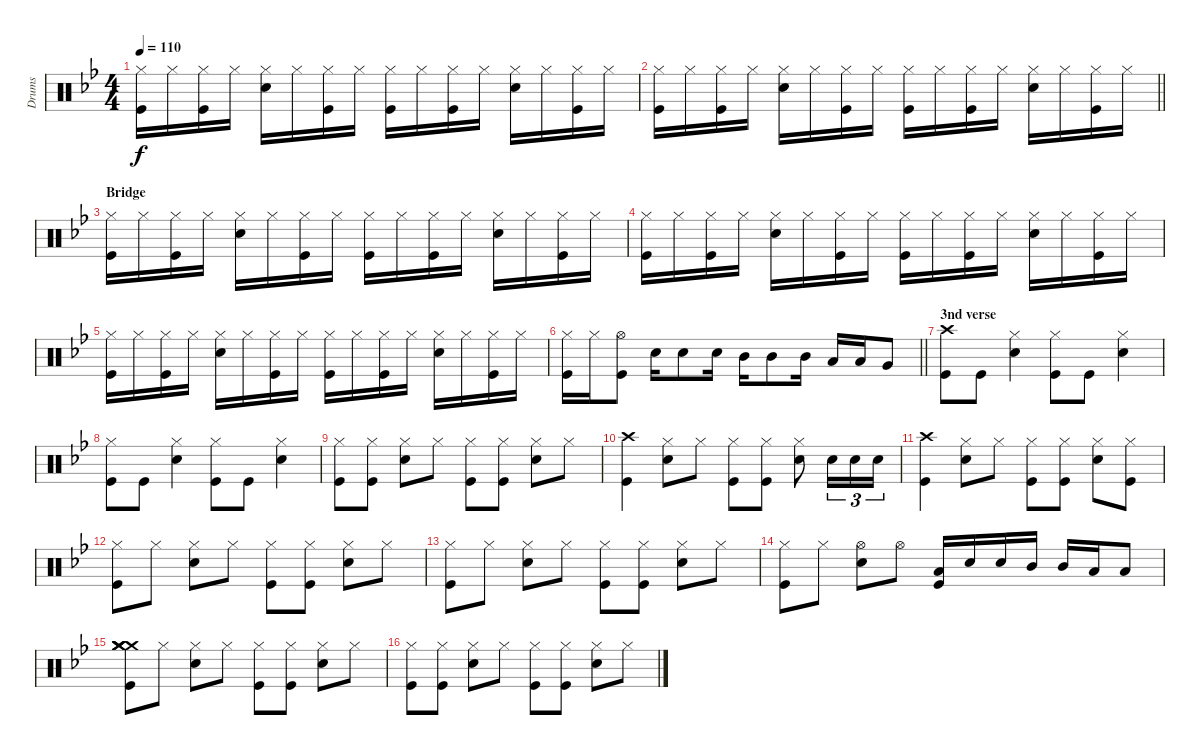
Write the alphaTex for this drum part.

\track ("Drums" "Drums") {instrument percussion}
\staff {score}
\articulation defaults
\ts (4 4)
\tempo 110
\clef neutral
\ks bb
("Hi-Hat (closed)" "Kick (hit)").16{dy f} "Hi-Hat (closed)".16 ("Hi-Hat (closed)" "Kick (hit)").16 "Hi-Hat (closed)".16 ("Hi-Hat (closed)" "Snare (hit) 2").16 "Hi-Hat (closed)".16 ("Hi-Hat (closed)" "Kick (hit)").16 "Hi-Hat (closed)".16 ("Hi-Hat (closed)" "Kick (hit)").16 "Hi-Hat (closed)".16 ("Hi-Hat (closed)" "Kick (hit)").16 "Hi-Hat (closed)".16 ("Hi-Hat (closed)" "Snare (hit) 2").16 "Hi-Hat (closed)".16 ("Hi-Hat (closed)" "Kick (hit)").16 "Hi-Hat (closed)".16 |
\barLineRight lightlight
("Hi-Hat (closed)" "Kick (hit)").16 "Hi-Hat (closed)".16 ("Hi-Hat (closed)" "Kick (hit)").16 "Hi-Hat (closed)".16 ("Hi-Hat (closed)" "Snare (hit) 2").16 "Hi-Hat (closed)".16 ("Hi-Hat (closed)" "Kick (hit)").16 "Hi-Hat (closed)".16 ("Hi-Hat (closed)" "Kick (hit)").16 "Hi-Hat (closed)".16 ("Hi-Hat (closed)" "Kick (hit)").16 "Hi-Hat (closed)".16 ("Hi-Hat (closed)" "Snare (hit) 2").16 "Hi-Hat (closed)".16 ("Hi-Hat (closed)" "Kick (hit)").16 "Hi-Hat (closed)".16 |
\section ("" "Bridge")
("Hi-Hat (closed)" "Kick (hit)").16 "Hi-Hat (closed)".16 ("Hi-Hat (closed)" "Kick (hit)").16 "Hi-Hat (closed)".16 ("Hi-Hat (closed)" "Snare (hit) 2").16 "Hi-Hat (closed)".16 ("Hi-Hat (closed)" "Kick (hit)").16 "Hi-Hat (closed)".16 ("Hi-Hat (closed)" "Kick (hit)").16 "Hi-Hat (closed)".16 ("Hi-Hat (closed)" "Kick (hit)").16 "Hi-Hat (closed)".16 ("Hi-Hat (closed)" "Snare (hit) 2").16 "Hi-Hat (closed)".16 ("Hi-Hat (closed)" "Kick (hit)").16 "Hi-Hat (closed)".16 |
("Hi-Hat (closed)" "Kick (hit)").16 "Hi-Hat (closed)".16 ("Hi-Hat (closed)" "Kick (hit)").16 "Hi-Hat (closed)".16 ("Hi-Hat (closed)" "Snare (hit) 2").16 "Hi-Hat (closed)".16 ("Hi-Hat (closed)" "Kick (hit)").16 "Hi-Hat (closed)".16 ("Hi-Hat (closed)" "Kick (hit)").16 "Hi-Hat (closed)".16 ("Hi-Hat (closed)" "Kick (hit)").16 "Hi-Hat (closed)".16 ("Hi-Hat (closed)" "Snare (hit) 2").16 "Hi-Hat (closed)".16 ("Hi-Hat (closed)" "Kick (hit)").16 "Hi-Hat (closed)".16 |
("Hi-Hat (closed)" "Kick (hit)").16 "Hi-Hat (closed)".16 ("Hi-Hat (closed)" "Kick (hit)").16 "Hi-Hat (closed)".16 ("Hi-Hat (closed)" "Snare (hit) 2").16 "Hi-Hat (closed)".16 ("Hi-Hat (closed)" "Kick (hit)").16 "Hi-Hat (closed)".16 ("Hi-Hat (closed)" "Kick (hit)").16 "Hi-Hat (closed)".16 ("Hi-Hat (closed)" "Kick (hit)").16 "Hi-Hat (closed)".16 ("Hi-Hat (closed)" "Snare (hit) 2").16 "Hi-Hat (closed)".16 ("Hi-Hat (closed)" "Kick (hit)").16 "Hi-Hat (closed)".16 |
\barLineRight lightlight
("Hi-Hat (closed)" "Kick (hit)").16 "Hi-Hat (closed)".16 ("Hi-Hat (open)" "Kick (hit)").8 "Snare (hit) 2".16 "Snare (hit) 2".8 "Snare (hit) 2".16 "Mid Tom (hit)".16 "Mid Tom (hit)".8 "Mid Tom (hit)".16 "Low Tom (hit)".16 "Low Tom (hit)".16 "Very Low Tom (hit)".8 |
\section ("" "3nd verse")
("Crash high (hit)" "Kick (hit)").8 "Kick (hit)".8 ("Hi-Hat (closed)" "Snare (hit) 2").4 ("Hi-Hat (closed)" "Kick (hit)").8 "Kick (hit)".8 ("Hi-Hat (closed)" "Snare (hit) 2").4 |
("Hi-Hat (closed)" "Kick (hit)").8 "Kick (hit)".8 ("Hi-Hat (closed)" "Snare (hit) 2").4 ("Hi-Hat (closed)" "Kick (hit)").8 "Kick (hit)".8 ("Hi-Hat (closed)" "Snare (hit) 2").4 |
("Hi-Hat (closed)" "Kick (hit)").8 ("Hi-Hat (closed)" "Kick (hit)").8 ("Hi-Hat (closed)" "Snare (hit) 2").8 "Hi-Hat (closed)".8 ("Hi-Hat (closed)" "Kick (hit)").8 ("Hi-Hat (closed)" "Kick (hit)").8 ("Hi-Hat (closed)" "Snare (hit) 2").8 "Hi-Hat (closed)".8 |
("Crash high (hit)" "Kick (hit)").4 ("Hi-Hat (closed)" "Snare (hit) 2").8 "Hi-Hat (closed)".8 ("Hi-Hat (closed)" "Kick (hit)").8 ("Hi-Hat (closed)" "Kick (hit)").8 ("Hi-Hat (closed)" "Snare (hit) 2").8 "Snare (hit) 2".16{tu (3 2)} "Snare (hit) 2".16{tu (3 2)} "Snare (hit) 2".16{tu (3 2)} |
("Crash high (hit)" "Kick (hit)").4 ("Hi-Hat (closed)" "Snare (hit) 2").8 "Hi-Hat (closed)".8 ("Hi-Hat (closed)" "Kick (hit)").8 ("Hi-Hat (closed)" "Kick (hit)").8 ("Hi-Hat (closed)" "Snare (hit) 2").8 ("Hi-Hat (closed)" "Kick (hit)").8 |
("Hi-Hat (closed)" "Kick (hit)").8 "Hi-Hat (closed)".8 ("Hi-Hat (closed)" "Snare (hit) 2").8 "Hi-Hat (closed)".8 ("Hi-Hat (closed)" "Kick (hit)").8 ("Hi-Hat (closed)" "Kick (hit)").8 ("Hi-Hat (closed)" "Snare (hit) 2").8 "Hi-Hat (closed)".8 |
("Hi-Hat (closed)" "Kick (hit)").8 "Hi-Hat (closed)".8 ("Hi-Hat (closed)" "Snare (hit) 2").8 "Hi-Hat (closed)".8 ("Hi-Hat (closed)" "Kick (hit)").8 ("Hi-Hat (closed)" "Kick (hit)").8 ("Hi-Hat (closed)" "Snare (hit) 2").8 "Hi-Hat (closed)".8 |
("Hi-Hat (closed)" "Kick (hit)").8 "Hi-Hat (closed)".8 ("Hi-Hat (open)" "Snare (hit) 2").8 "Hi-Hat (open)".8 ("Low Tom (hit)" "Kick (hit)").16 "Snare (hit) 2".16 "Snare (hit) 2".16 "Mid Tom (hit)".16 "Mid Tom (hit)".16 "Low Tom (hit)".16 "Low Tom (hit)".8 |
("Crash medium (hit)" "Crash medium (hit)" "Crash medium (hit)" "Crash medium (hit)" "Kick (hit)").8 "Hi-Hat (closed)".8 ("Hi-Hat (closed)" "Snare (hit) 2").8 "Hi-Hat (closed)".8 ("Hi-Hat (closed)" "Kick (hit)").8 ("Hi-Hat (closed)" "Kick (hit)").8 ("Hi-Hat (closed)" "Snare (hit) 2").8 "Hi-Hat (closed)".8 |
("Hi-Hat (closed)" "Kick (hit)").8 ("Hi-Hat (closed)" "Kick (hit)").8 ("Hi-Hat (closed)" "Snare (hit) 2").8 "Hi-Hat (closed)".8 ("Hi-Hat (closed)" "Kick (hit)").8 ("Hi-Hat (closed)" "Kick (hit)").8 ("Hi-Hat (closed)" "Snare (hit) 2").8 "Hi-Hat (closed)".8
